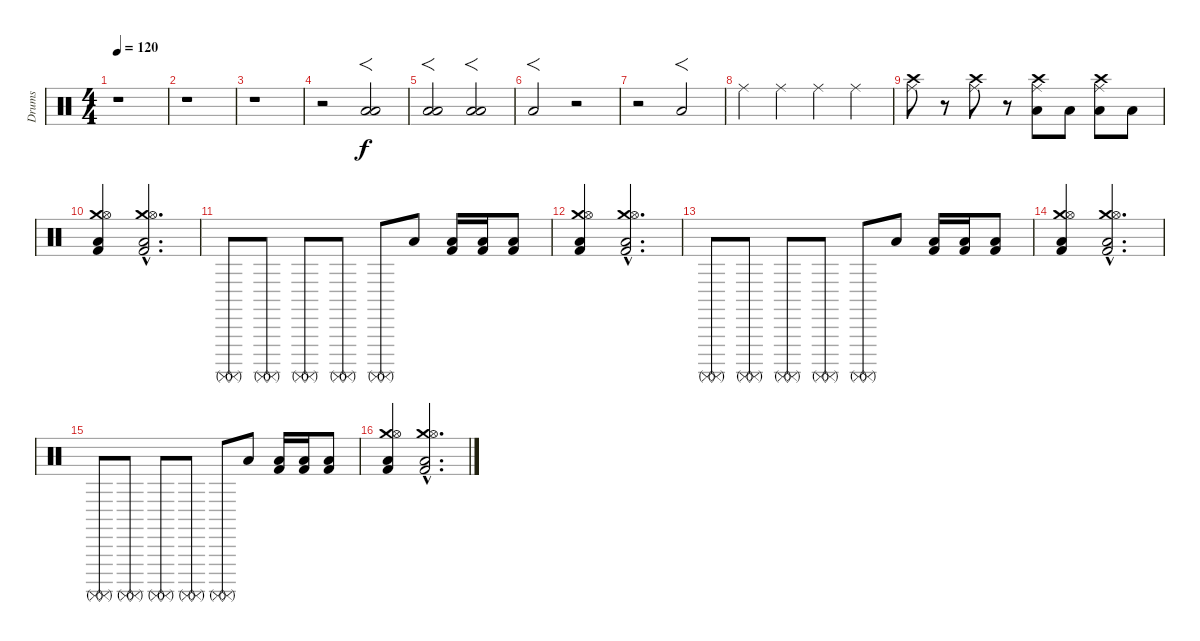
\track ("Drums" "Drums") {instrument percussion}
\staff {score}
\articulation defaults
\ts (4 4)
\tempo 120
\clef neutral
\ks c
r.1{dy f} |
r.1 |
r.1 |
r.2 ("Low Floor Tom (hit)" "Low Floor Tom (hit)").2{f} |
("Low Floor Tom (hit)" "Low Floor Tom (hit)").2{f} ("Low Floor Tom (hit)" "Low Floor Tom (hit)").2{f} |
"Low Floor Tom (hit)".2{f} r.2 |
r.2 "Low Floor Tom (hit)".2{f} |
"Ride (middle)".4 "Ride (middle)".4 "Ride (middle)".4 "Ride (middle)".4 |
("Ride (middle)" "Crash high (hit)").8 r.8 ("Ride (middle)" "Crash high (hit)").8 r.8 ("Ride (middle)" "Crash high (hit)" "Low Floor Tom (hit)").8 "Low Floor Tom (hit)".8 ("Ride (middle)" "Crash high (hit)" "Low Floor Tom (hit)").8 "Low Floor Tom (hit)".8 |
("Crash medium (hit)" "Hi-Hat (open)" "Low Floor Tom (hit)" "Kick (hit) 2").4 ("Crash medium (hit)"{hac} "Hi-Hat (open)"{hac} "Low Floor Tom (hit)"{hac} "Kick (hit) 2"{hac}).2{d} |
("Surdo (mute)" "Surdo (mute)").8 ("Surdo (mute)" "Surdo (mute)").8 ("Surdo (mute)" "Surdo (mute)").8 ("Surdo (mute)" "Surdo (mute)").8 ("Surdo (mute)" "Surdo (mute)").8 "Low Floor Tom (hit)".8 ("Low Floor Tom (hit)" "Kick (hit) 2").16 ("Low Floor Tom (hit)" "Kick (hit) 2").16 ("Low Floor Tom (hit)" "Kick (hit) 2").8 |
("Crash medium (hit)" "Hi-Hat (open)" "Low Floor Tom (hit)" "Kick (hit) 2").4 ("Crash medium (hit)"{hac} "Hi-Hat (open)"{hac} "Low Floor Tom (hit)"{hac} "Kick (hit) 2"{hac}).2{d} |
("Surdo (mute)" "Surdo (mute)").8 ("Surdo (mute)" "Surdo (mute)").8 ("Surdo (mute)" "Surdo (mute)").8 ("Surdo (mute)" "Surdo (mute)").8 ("Surdo (mute)" "Surdo (mute)").8 "Low Floor Tom (hit)".8 ("Low Floor Tom (hit)" "Kick (hit) 2").16 ("Low Floor Tom (hit)" "Kick (hit) 2").16 ("Low Floor Tom (hit)" "Kick (hit) 2").8 |
("Crash medium (hit)" "Hi-Hat (open)" "Low Floor Tom (hit)" "Kick (hit) 2").4 ("Crash medium (hit)"{hac} "Hi-Hat (open)"{hac} "Low Floor Tom (hit)"{hac} "Kick (hit) 2"{hac}).2{d} |
("Surdo (mute)" "Surdo (mute)").8 ("Surdo (mute)" "Surdo (mute)").8 ("Surdo (mute)" "Surdo (mute)").8 ("Surdo (mute)" "Surdo (mute)").8 ("Surdo (mute)" "Surdo (mute)").8 "Low Floor Tom (hit)".8 ("Low Floor Tom (hit)" "Kick (hit) 2").16 ("Low Floor Tom (hit)" "Kick (hit) 2").16 ("Low Floor Tom (hit)" "Kick (hit) 2").8 |
("Crash medium (hit)" "Hi-Hat (open)" "Low Floor Tom (hit)" "Kick (hit) 2").4 ("Crash medium (hit)"{hac} "Hi-Hat (open)"{hac} "Low Floor Tom (hit)"{hac} "Kick (hit) 2"{hac}).2{d}
